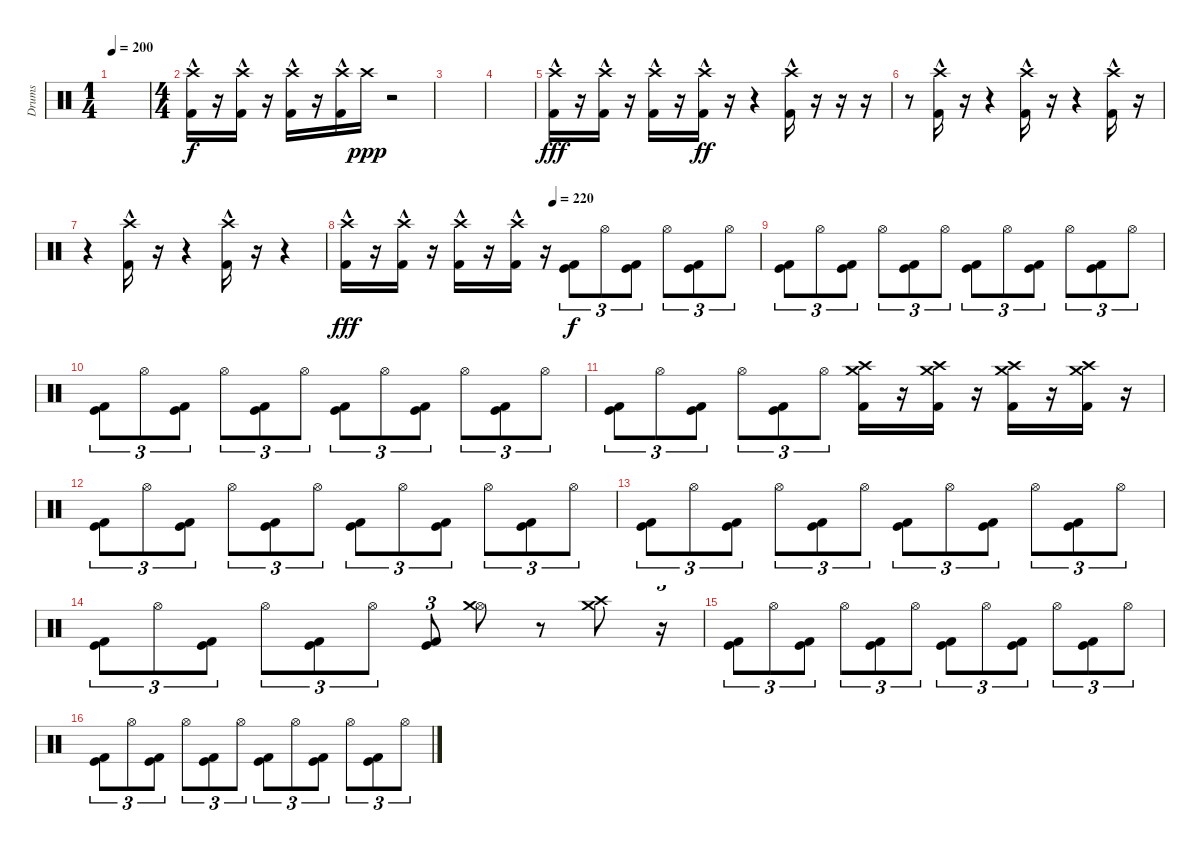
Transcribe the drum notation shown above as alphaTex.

\track ("Drums" "Drums") {instrument percussion}
\staff {score}
\articulation defaults
\ts (1 4)
\tempo 200
\clef neutral
\ks c
|
\ts (4 4)
("Crash high (hit)"{hac} "Kick (hit) 2").16 r.16 ("Crash high (hit)"{hac} "Kick (hit) 2").16 r.16 ("Crash high (hit)"{hac} "Kick (hit) 2").16 r.16 ("Crash high (hit)"{hac} "Kick (hit) 2").16 "Crash high (hit)".16{dy ppp} r.2 |
|
|
("Crash high (hit)"{hac} "Kick (hit) 2").16{dy fff} r.16 ("Crash high (hit)"{hac} "Kick (hit) 2").16 r.16 ("Crash high (hit)"{hac} "Kick (hit) 2").16 r.16 ("Crash high (hit)"{hac} "Kick (hit) 2").16{dy ff} r.16 r.4 ("Crash high (hit)"{hac} "Kick (hit) 2").16 r.16 r.16 r.16 |
r.8 ("Crash high (hit)"{hac} "Kick (hit) 2").16 r.16 r.4 ("Crash high (hit)"{hac} "Kick (hit) 2").16 r.16 r.4 ("Crash high (hit)"{hac} "Kick (hit) 2").16 r.16 |
r.4 ("Crash high (hit)"{hac} "Kick (hit) 2").16 r.16 r.4 ("Crash high (hit)"{hac} "Kick (hit) 2").16 r.16 r.4 |
\tempo (220 0.5)
("Crash high (hit)"{hac} "Kick (hit) 2").16{dy fff} r.16 ("Crash high (hit)"{hac} "Kick (hit) 2").16 r.16 ("Crash high (hit)"{hac} "Kick (hit) 2").16 r.16 ("Crash high (hit)"{hac} "Kick (hit) 2").16 r.16 ("Kick (hit)" "Kick (hit) 2").8{tu (3 2) dy f} "Hi-Hat (open)".8{tu (3 2)} ("Kick (hit)" "Kick (hit) 2").8{tu (3 2)} "Hi-Hat (open)".8{tu (3 2)} ("Kick (hit)" "Kick (hit) 2").8{tu (3 2)} "Hi-Hat (open)".8{tu (3 2)} |
("Kick (hit)" "Kick (hit) 2").8{tu (3 2)} "Hi-Hat (open)".8{tu (3 2)} ("Kick (hit)" "Kick (hit) 2").8{tu (3 2)} "Hi-Hat (open)".8{tu (3 2)} ("Kick (hit)" "Kick (hit) 2").8{tu (3 2)} "Hi-Hat (open)".8{tu (3 2)} ("Kick (hit)" "Kick (hit) 2").8{tu (3 2)} "Hi-Hat (open)".8{tu (3 2)} ("Kick (hit)" "Kick (hit) 2").8{tu (3 2)} "Hi-Hat (open)".8{tu (3 2)} ("Kick (hit)" "Kick (hit) 2").8{tu (3 2)} "Hi-Hat (open)".8{tu (3 2)} |
("Kick (hit)" "Kick (hit) 2").8{tu (3 2)} "Hi-Hat (open)".8{tu (3 2)} ("Kick (hit)" "Kick (hit) 2").8{tu (3 2)} "Hi-Hat (open)".8{tu (3 2)} ("Kick (hit)" "Kick (hit) 2").8{tu (3 2)} "Hi-Hat (open)".8{tu (3 2)} ("Kick (hit)" "Kick (hit) 2").8{tu (3 2)} "Hi-Hat (open)".8{tu (3 2)} ("Kick (hit)" "Kick (hit) 2").8{tu (3 2)} "Hi-Hat (open)".8{tu (3 2)} ("Kick (hit)" "Kick (hit) 2").8{tu (3 2)} "Hi-Hat (open)".8{tu (3 2)} |
("Kick (hit)" "Kick (hit) 2").8{tu (3 2)} "Hi-Hat (open)".8{tu (3 2)} ("Kick (hit)" "Kick (hit) 2").8{tu (3 2)} "Hi-Hat (open)".8{tu (3 2)} ("Kick (hit)" "Kick (hit) 2").8{tu (3 2)} "Hi-Hat (open)".8{tu (3 2)} ("Crash high (hit)" "Crash medium (hit)" "Kick (hit) 2").16 r.16 ("Crash high (hit)" "Crash medium (hit)" "Kick (hit) 2").16 r.16 ("Crash high (hit)" "Crash medium (hit)" "Kick (hit) 2").16 r.16 ("Crash high (hit)" "Crash medium (hit)" "Kick (hit) 2").16 r.16 |
("Kick (hit)" "Kick (hit) 2").8{tu (3 2)} "Hi-Hat (open)".8{tu (3 2)} ("Kick (hit)" "Kick (hit) 2").8{tu (3 2)} "Hi-Hat (open)".8{tu (3 2)} ("Kick (hit)" "Kick (hit) 2").8{tu (3 2)} "Hi-Hat (open)".8{tu (3 2)} ("Kick (hit)" "Kick (hit) 2").8{tu (3 2)} "Hi-Hat (open)".8{tu (3 2)} ("Kick (hit)" "Kick (hit) 2").8{tu (3 2)} "Hi-Hat (open)".8{tu (3 2)} ("Kick (hit)" "Kick (hit) 2").8{tu (3 2)} "Hi-Hat (open)".8{tu (3 2)} |
("Kick (hit)" "Kick (hit) 2").8{tu (3 2)} "Hi-Hat (open)".8{tu (3 2)} ("Kick (hit)" "Kick (hit) 2").8{tu (3 2)} "Hi-Hat (open)".8{tu (3 2)} ("Kick (hit)" "Kick (hit) 2").8{tu (3 2)} "Hi-Hat (open)".8{tu (3 2)} ("Kick (hit)" "Kick (hit) 2").8{tu (3 2)} "Hi-Hat (open)".8{tu (3 2)} ("Kick (hit)" "Kick (hit) 2").8{tu (3 2)} "Hi-Hat (open)".8{tu (3 2)} ("Kick (hit)" "Kick (hit) 2").8{tu (3 2)} "Hi-Hat (open)".8{tu (3 2)} |
("Kick (hit)" "Kick (hit) 2").8{tu (3 2)} "Hi-Hat (open)".8{tu (3 2)} ("Kick (hit)" "Kick (hit) 2").8{tu (3 2)} "Hi-Hat (open)".8{tu (3 2)} ("Kick (hit)" "Kick (hit) 2").8{tu (3 2)} "Hi-Hat (open)".8{tu (3 2)} ("Kick (hit)" "Kick (hit) 2").8{tu (3 2)} ("Hi-Hat (open)" "Crash medium (hit)").8 r.8 ("Crash high (hit)" "Crash medium (hit)").8 r.16{tu (3 2)} |
("Kick (hit)" "Kick (hit) 2").8{tu (3 2)} "Hi-Hat (open)".8{tu (3 2)} ("Kick (hit)" "Kick (hit) 2").8{tu (3 2)} "Hi-Hat (open)".8{tu (3 2)} ("Kick (hit)" "Kick (hit) 2").8{tu (3 2)} "Hi-Hat (open)".8{tu (3 2)} ("Kick (hit)" "Kick (hit) 2").8{tu (3 2)} "Hi-Hat (open)".8{tu (3 2)} ("Kick (hit)" "Kick (hit) 2").8{tu (3 2)} "Hi-Hat (open)".8{tu (3 2)} ("Kick (hit)" "Kick (hit) 2").8{tu (3 2)} "Hi-Hat (open)".8{tu (3 2)} |
("Kick (hit)" "Kick (hit) 2").8{tu (3 2)} "Hi-Hat (open)".8{tu (3 2)} ("Kick (hit)" "Kick (hit) 2").8{tu (3 2)} "Hi-Hat (open)".8{tu (3 2)} ("Kick (hit)" "Kick (hit) 2").8{tu (3 2)} "Hi-Hat (open)".8{tu (3 2)} ("Kick (hit)" "Kick (hit) 2").8{tu (3 2)} "Hi-Hat (open)".8{tu (3 2)} ("Kick (hit)" "Kick (hit) 2").8{tu (3 2)} "Hi-Hat (open)".8{tu (3 2)} ("Kick (hit)" "Kick (hit) 2").8{tu (3 2)} "Hi-Hat (open)".8{tu (3 2)}
